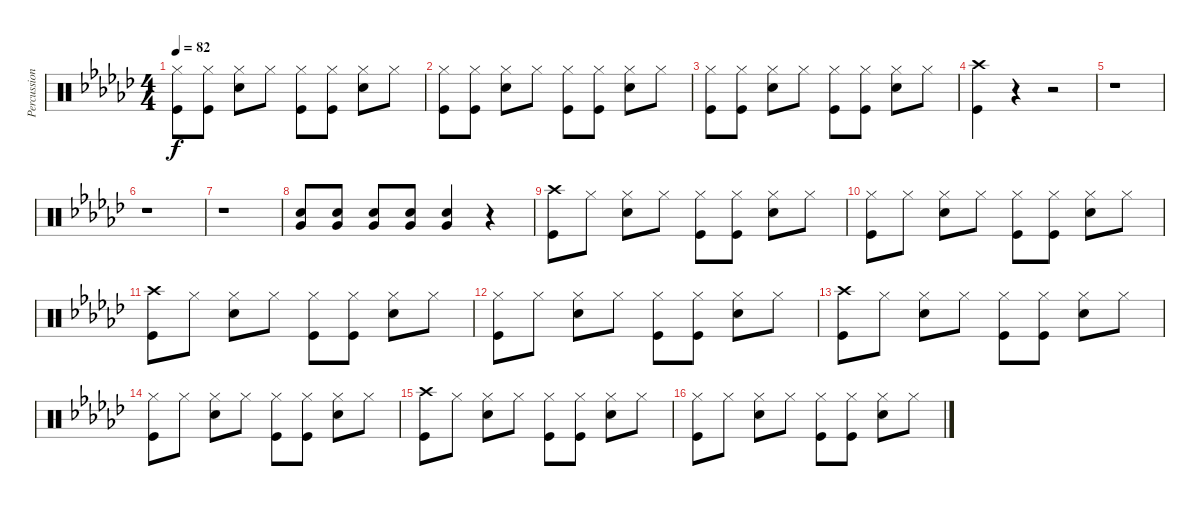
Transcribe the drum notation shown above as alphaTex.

\track ("Percussions" "Percussion") {instrument percussion}
\staff {score}
\articulation defaults
\ts (4 4)
\tempo 82
\clef neutral
\ks ebminor
("Kick (hit)" "Hi-Hat (closed)").8{dy f} ("Hi-Hat (closed)" "Kick (hit)").8 ("Hi-Hat (closed)" "Snare (hit) 2").8 "Hi-Hat (closed)".8 ("Hi-Hat (closed)" "Kick (hit)").8 ("Hi-Hat (closed)" "Kick (hit)").8 ("Hi-Hat (closed)" "Snare (hit) 2").8 "Hi-Hat (closed)".8 |
("Kick (hit)" "Hi-Hat (closed)").8 ("Hi-Hat (closed)" "Kick (hit)").8 ("Hi-Hat (closed)" "Snare (hit) 2").8 "Hi-Hat (closed)".8 ("Hi-Hat (closed)" "Kick (hit)").8 ("Hi-Hat (closed)" "Kick (hit)").8 ("Hi-Hat (closed)" "Snare (hit) 2").8 "Hi-Hat (closed)".8 |
("Kick (hit)" "Hi-Hat (closed)").8 ("Hi-Hat (closed)" "Kick (hit)").8 ("Hi-Hat (closed)" "Snare (hit) 2").8 "Hi-Hat (closed)".8 ("Hi-Hat (closed)" "Kick (hit)").8 ("Hi-Hat (closed)" "Kick (hit)").8 ("Hi-Hat (closed)" "Snare (hit) 2").8 "Hi-Hat (closed)".8 |
("Kick (hit)" "Crash high (hit)").4 r.4 r.2 |
r.1 |
r.1 |
r.1 |
("Very Low Tom (hit)" "Snare (hit) 2").8 ("Snare (hit) 2" "Very Low Tom (hit)").8 ("Very Low Tom (hit)" "Snare (hit) 2").8 ("Snare (hit) 2" "Very Low Tom (hit)").8 ("Snare (hit) 2" "Very Low Tom (hit)").4 r.4 |
("Crash high (hit)" "Kick (hit)").8 "Hi-Hat (closed)".8 ("Hi-Hat (closed)" "Snare (hit) 2").8 "Hi-Hat (closed)".8 ("Hi-Hat (closed)" "Kick (hit)").8 ("Hi-Hat (closed)" "Kick (hit)").8 ("Hi-Hat (closed)" "Snare (hit) 2").8 "Hi-Hat (closed)".8 |
("Kick (hit)" "Hi-Hat (closed)").8 "Hi-Hat (closed)".8 ("Hi-Hat (closed)" "Snare (hit) 2").8 "Hi-Hat (closed)".8 ("Hi-Hat (closed)" "Kick (hit)").8 ("Hi-Hat (closed)" "Kick (hit)").8 ("Hi-Hat (closed)" "Snare (hit) 2").8 "Hi-Hat (closed)".8 |
("Crash high (hit)" "Kick (hit)").8 "Hi-Hat (closed)".8 ("Hi-Hat (closed)" "Snare (hit) 2").8 "Hi-Hat (closed)".8 ("Hi-Hat (closed)" "Kick (hit)").8 ("Hi-Hat (closed)" "Kick (hit)").8 ("Hi-Hat (closed)" "Snare (hit) 2").8 "Hi-Hat (closed)".8 |
("Kick (hit)" "Hi-Hat (closed)").8 "Hi-Hat (closed)".8 ("Hi-Hat (closed)" "Snare (hit) 2").8 "Hi-Hat (closed)".8 ("Hi-Hat (closed)" "Kick (hit)").8 ("Hi-Hat (closed)" "Kick (hit)").8 ("Hi-Hat (closed)" "Snare (hit) 2").8 "Hi-Hat (closed)".8 |
("Crash high (hit)" "Kick (hit)").8 "Hi-Hat (closed)".8 ("Hi-Hat (closed)" "Snare (hit) 2").8 "Hi-Hat (closed)".8 ("Hi-Hat (closed)" "Kick (hit)").8 ("Hi-Hat (closed)" "Kick (hit)").8 ("Hi-Hat (closed)" "Snare (hit) 2").8 "Hi-Hat (closed)".8 |
("Kick (hit)" "Hi-Hat (closed)").8 "Hi-Hat (closed)".8 ("Hi-Hat (closed)" "Snare (hit) 2").8 "Hi-Hat (closed)".8 ("Hi-Hat (closed)" "Kick (hit)").8 ("Hi-Hat (closed)" "Kick (hit)").8 ("Hi-Hat (closed)" "Snare (hit) 2").8 "Hi-Hat (closed)".8 |
("Crash high (hit)" "Kick (hit)").8 "Hi-Hat (closed)".8 ("Hi-Hat (closed)" "Snare (hit) 2").8 "Hi-Hat (closed)".8 ("Hi-Hat (closed)" "Kick (hit)").8 ("Hi-Hat (closed)" "Kick (hit)").8 ("Hi-Hat (closed)" "Snare (hit) 2").8 "Hi-Hat (closed)".8 |
("Kick (hit)" "Hi-Hat (closed)").8 "Hi-Hat (closed)".8 ("Hi-Hat (closed)" "Snare (hit) 2").8 "Hi-Hat (closed)".8 ("Hi-Hat (closed)" "Kick (hit)").8 ("Hi-Hat (closed)" "Kick (hit)").8 ("Hi-Hat (closed)" "Snare (hit) 2").8 "Hi-Hat (closed)".8
